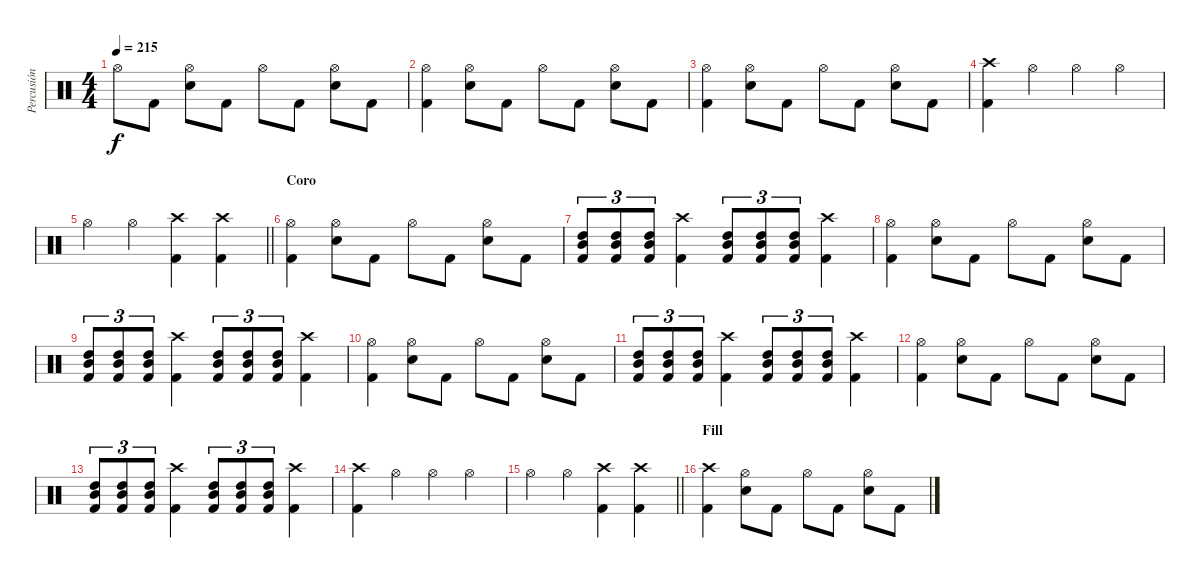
\track ("Percusión" "Percusión") {instrument percussion}
\staff {score}
\articulation defaults
\ts (4 4)
\tempo 215
\clef neutral
\ks c "Hi-Hat (open)".8{dy f} "Kick (hit) 2".8
("Hi-Hat (open)" "Electric Snare (hit)").8 "Kick (hit) 2".8 "Hi-Hat (open)".8 "Kick (hit) 2".8 ("Hi-Hat (open)" "Electric Snare (hit)").8 "Kick (hit) 2".8 |
("Hi-Hat (open)" "Kick (hit) 2").4 ("Hi-Hat (open)" "Electric Snare (hit)").8 "Kick (hit) 2".8 "Hi-Hat (open)".8 "Kick (hit) 2".8 ("Hi-Hat (open)" "Electric Snare (hit)").8 "Kick (hit) 2".8 |
("Hi-Hat (open)" "Kick (hit) 2").4 ("Hi-Hat (open)" "Electric Snare (hit)").8 "Kick (hit) 2".8 "Hi-Hat (open)".8 "Kick (hit) 2".8 ("Hi-Hat (open)" "Electric Snare (hit)").8 "Kick (hit) 2".8 |
("Crash high (hit)" "Kick (hit) 2").4 "Hi-Hat (open)".4 "Hi-Hat (open)".4 "Hi-Hat (open)".4 |
\barLineRight lightlight "Hi-Hat (open)".4 "Hi-Hat (open)".4
("Crash high (hit)" "Kick (hit) 2").4 ("Crash high (hit)" "Kick (hit) 2").4 |
\section ("" "Coro")
("Hi-Hat (open)" "Kick (hit) 2").4 ("Hi-Hat (open)" "Electric Snare (hit)").8 "Kick (hit) 2".8 "Hi-Hat (open)".8 "Kick (hit) 2".8 ("Hi-Hat (open)" "Electric Snare (hit)").8 "Kick (hit) 2".8 |
("High Tom (hit)" "Mid Tom (hit)" "Kick (hit) 2").8{tu (3 2)} ("High Tom (hit)" "Mid Tom (hit)" "Kick (hit) 2").8{tu (3 2)} ("High Tom (hit)" "Mid Tom (hit)" "Kick (hit) 2").8{tu (3 2)} ("Crash high (hit)" "Kick (hit) 2").4 ("High Tom (hit)" "Mid Tom (hit)" "Kick (hit) 2").8{tu (3 2)} ("High Tom (hit)" "Mid Tom (hit)" "Kick (hit) 2").8{tu (3 2)} ("High Tom (hit)" "Mid Tom (hit)" "Kick (hit) 2").8{tu (3 2)} ("Crash high (hit)" "Kick (hit) 2").4 |
("Hi-Hat (open)" "Kick (hit) 2").4 ("Hi-Hat (open)" "Electric Snare (hit)").8 "Kick (hit) 2".8 "Hi-Hat (open)".8 "Kick (hit) 2".8 ("Hi-Hat (open)" "Electric Snare (hit)").8 "Kick (hit) 2".8 |
("High Tom (hit)" "Mid Tom (hit)" "Kick (hit) 2").8{tu (3 2)} ("High Tom (hit)" "Mid Tom (hit)" "Kick (hit) 2").8{tu (3 2)} ("High Tom (hit)" "Mid Tom (hit)" "Kick (hit) 2").8{tu (3 2)} ("Crash high (hit)" "Kick (hit) 2").4 ("High Tom (hit)" "Mid Tom (hit)" "Kick (hit) 2").8{tu (3 2)} ("High Tom (hit)" "Mid Tom (hit)" "Kick (hit) 2").8{tu (3 2)} ("High Tom (hit)" "Mid Tom (hit)" "Kick (hit) 2").8{tu (3 2)} ("Crash high (hit)" "Kick (hit) 2").4 |
("Hi-Hat (open)" "Kick (hit) 2").4 ("Hi-Hat (open)" "Electric Snare (hit)").8 "Kick (hit) 2".8 "Hi-Hat (open)".8 "Kick (hit) 2".8 ("Hi-Hat (open)" "Electric Snare (hit)").8 "Kick (hit) 2".8 |
("High Tom (hit)" "Mid Tom (hit)" "Kick (hit) 2").8{tu (3 2)} ("High Tom (hit)" "Mid Tom (hit)" "Kick (hit) 2").8{tu (3 2)} ("High Tom (hit)" "Mid Tom (hit)" "Kick (hit) 2").8{tu (3 2)} ("Crash high (hit)" "Kick (hit) 2").4 ("High Tom (hit)" "Mid Tom (hit)" "Kick (hit) 2").8{tu (3 2)} ("High Tom (hit)" "Mid Tom (hit)" "Kick (hit) 2").8{tu (3 2)} ("High Tom (hit)" "Mid Tom (hit)" "Kick (hit) 2").8{tu (3 2)} ("Crash high (hit)" "Kick (hit) 2").4 |
("Hi-Hat (open)" "Kick (hit) 2").4 ("Hi-Hat (open)" "Electric Snare (hit)").8 "Kick (hit) 2".8 "Hi-Hat (open)".8 "Kick (hit) 2".8 ("Hi-Hat (open)" "Electric Snare (hit)").8 "Kick (hit) 2".8 |
("High Tom (hit)" "Mid Tom (hit)" "Kick (hit) 2").8{tu (3 2)} ("High Tom (hit)" "Mid Tom (hit)" "Kick (hit) 2").8{tu (3 2)} ("High Tom (hit)" "Mid Tom (hit)" "Kick (hit) 2").8{tu (3 2)} ("Crash high (hit)" "Kick (hit) 2").4 ("High Tom (hit)" "Mid Tom (hit)" "Kick (hit) 2").8{tu (3 2)} ("High Tom (hit)" "Mid Tom (hit)" "Kick (hit) 2").8{tu (3 2)} ("High Tom (hit)" "Mid Tom (hit)" "Kick (hit) 2").8{tu (3 2)} ("Crash high (hit)" "Kick (hit) 2").4 |
("Crash high (hit)" "Kick (hit) 2").4 "Hi-Hat (open)".4 "Hi-Hat (open)".4 "Hi-Hat (open)".4 |
\barLineRight lightlight "Hi-Hat (open)".4 "Hi-Hat (open)".4
("Crash high (hit)" "Kick (hit) 2").4 ("Crash high (hit)" "Kick (hit) 2").4 |
\section ("" "Fill")
("Crash high (hit)" "Kick (hit) 2").4 ("Hi-Hat (open)" "Electric Snare (hit)").8 "Kick (hit) 2".8 "Hi-Hat (open)".8 "Kick (hit) 2".8 ("Hi-Hat (open)" "Electric Snare (hit)").8 "Kick (hit) 2".8
